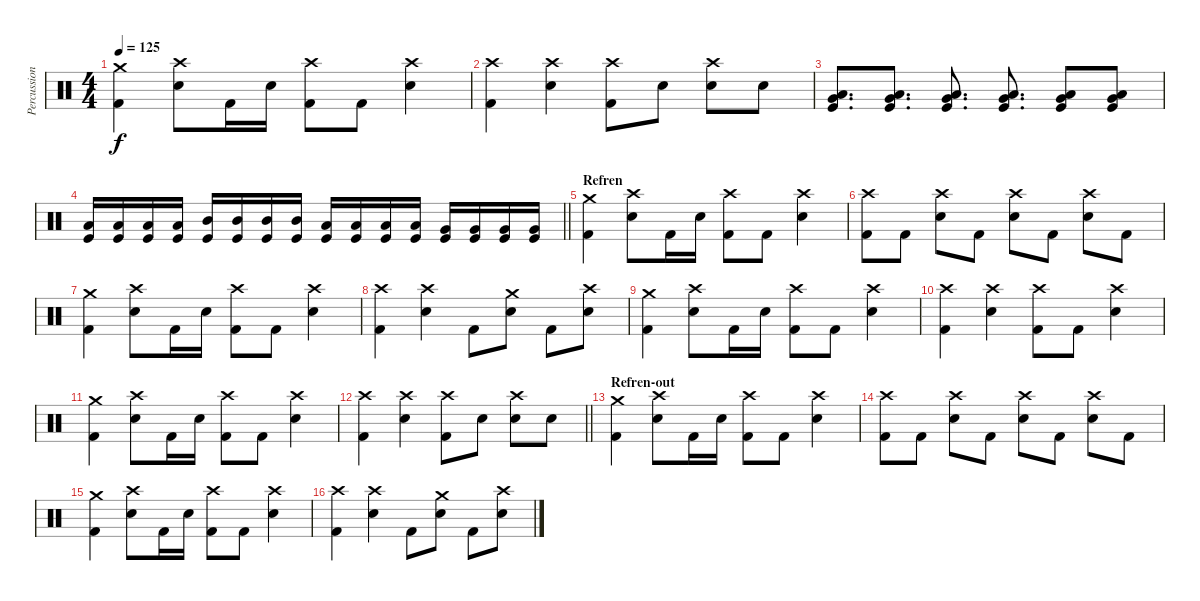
\track ("Percussion" "Percussion") {instrument percussion}
\staff {score}
\articulation defaults
\ts (4 4)
\tempo 125
\clef neutral
\ks c
("Kick (hit) 2" "Crash medium (hit)").4{dy f} ("Electric Snare (hit)" "Crash high (hit)").8 "Kick (hit) 2".16 "Electric Snare (hit)".16 ("Kick (hit) 2" "Crash high (hit)").8 "Kick (hit) 2".8 ("Electric Snare (hit)" "Crash high (hit)").4 |
("Kick (hit) 2" "Crash high (hit)").4 ("Electric Snare (hit)" "Crash high (hit)").4 ("Kick (hit) 2" "Crash high (hit)").8 "Electric Snare (hit)".8 ("Electric Snare (hit)" "Crash high (hit)").8 "Electric Snare (hit)".8 |
("Very Low Tom (hit)" "Low Tom (hit)" "Kick (hit)").8{d} ("Very Low Tom (hit)" "Low Tom (hit)" "Kick (hit)").8{d} ("Very Low Tom (hit)" "Low Tom (hit)" "Kick (hit)").8{d} ("Low Tom (hit)" "Very Low Tom (hit)" "Kick (hit)").8{d} ("Very Low Tom (hit)" "Low Tom (hit)" "Kick (hit)").8 ("Very Low Tom (hit)" "Low Tom (hit)" "Kick (hit)").8 |
\barLineRight lightlight
("Low Tom (hit)" "Kick (hit)").16 ("Low Tom (hit)" "Kick (hit)").16 ("Low Tom (hit)" "Kick (hit)").16 ("Low Tom (hit)" "Kick (hit)").16 ("Mid Tom (hit)" "Kick (hit)").16 ("Mid Tom (hit)" "Kick (hit)").16 ("Mid Tom (hit)" "Kick (hit)").16 ("Mid Tom (hit)" "Kick (hit)").16 ("Low Tom (hit)" "Kick (hit)").16 ("Low Tom (hit)" "Kick (hit)").16 ("Low Tom (hit)" "Kick (hit)").16 ("Low Tom (hit)" "Kick (hit)").16 ("Very Low Tom (hit)" "Kick (hit)").16 ("Very Low Tom (hit)" "Kick (hit)").16 ("Very Low Tom (hit)" "Kick (hit)").16 ("Very Low Tom (hit)" "Kick (hit)").16 |
\section ("" "Refren")
("Kick (hit) 2" "Crash medium (hit)").4 ("Electric Snare (hit)" "Crash high (hit)").8 "Kick (hit) 2".16 "Electric Snare (hit)".16 ("Kick (hit) 2" "Crash high (hit)").8 "Kick (hit) 2".8 ("Electric Snare (hit)" "Crash high (hit)").4 |
("Kick (hit) 2" "Crash high (hit)").8 "Kick (hit) 2".8 ("Electric Snare (hit)" "Crash high (hit)").8 "Kick (hit) 2".8 ("Electric Snare (hit)" "Crash high (hit)").8 "Kick (hit) 2".8 ("Electric Snare (hit)" "Crash high (hit)").8 "Kick (hit) 2".8 |
("Kick (hit) 2" "Crash medium (hit)").4 ("Electric Snare (hit)" "Crash high (hit)").8 "Kick (hit) 2".16 "Electric Snare (hit)".16 ("Kick (hit) 2" "Crash high (hit)").8 "Kick (hit) 2".8 ("Electric Snare (hit)" "Crash high (hit)").4 |
("Kick (hit) 2" "Crash high (hit)").4 ("Electric Snare (hit)" "Crash high (hit)").4 "Kick (hit) 2".8 ("Electric Snare (hit)" "Crash medium (hit)").8 "Kick (hit) 2".8 ("Electric Snare (hit)" "Crash high (hit)").8 |
("Kick (hit) 2" "Crash medium (hit)").4 ("Electric Snare (hit)" "Crash high (hit)").8 "Kick (hit) 2".16 "Electric Snare (hit)".16 ("Kick (hit) 2" "Crash high (hit)").8 "Kick (hit) 2".8 ("Electric Snare (hit)" "Crash high (hit)").4 |
("Kick (hit) 2" "Crash high (hit)").4 ("Electric Snare (hit)" "Crash high (hit)").4 ("Kick (hit) 2" "Crash high (hit)").8 "Kick (hit) 2".8 ("Electric Snare (hit)" "Crash high (hit)").4 |
("Kick (hit) 2" "Crash medium (hit)").4 ("Electric Snare (hit)" "Crash high (hit)").8 "Kick (hit) 2".16 "Electric Snare (hit)".16 ("Kick (hit) 2" "Crash high (hit)").8 "Kick (hit) 2".8 ("Electric Snare (hit)" "Crash high (hit)").4 |
\barLineRight lightlight
("Kick (hit) 2" "Crash high (hit)").4 ("Electric Snare (hit)" "Crash high (hit)").4 ("Kick (hit) 2" "Crash high (hit)").8 "Electric Snare (hit)".8 ("Electric Snare (hit)" "Crash high (hit)").8 "Electric Snare (hit)".8 |
\section ("" "Refren-out")
("Kick (hit) 2" "Crash medium (hit)").4 ("Electric Snare (hit)" "Crash high (hit)").8 "Kick (hit) 2".16 "Electric Snare (hit)".16 ("Kick (hit) 2" "Crash high (hit)").8 "Kick (hit) 2".8 ("Electric Snare (hit)" "Crash high (hit)").4 |
("Kick (hit) 2" "Crash high (hit)").8 "Kick (hit) 2".8 ("Electric Snare (hit)" "Crash high (hit)").8 "Kick (hit) 2".8 ("Electric Snare (hit)" "Crash high (hit)").8 "Kick (hit) 2".8 ("Electric Snare (hit)" "Crash high (hit)").8 "Kick (hit) 2".8 |
("Kick (hit) 2" "Crash medium (hit)").4 ("Electric Snare (hit)" "Crash high (hit)").8 "Kick (hit) 2".16 "Electric Snare (hit)".16 ("Kick (hit) 2" "Crash high (hit)").8 "Kick (hit) 2".8 ("Electric Snare (hit)" "Crash high (hit)").4 |
("Kick (hit) 2" "Crash high (hit)").4 ("Electric Snare (hit)" "Crash high (hit)").4 "Kick (hit) 2".8 ("Electric Snare (hit)" "Crash medium (hit)").8 "Kick (hit) 2".8 ("Electric Snare (hit)" "Crash high (hit)").8
